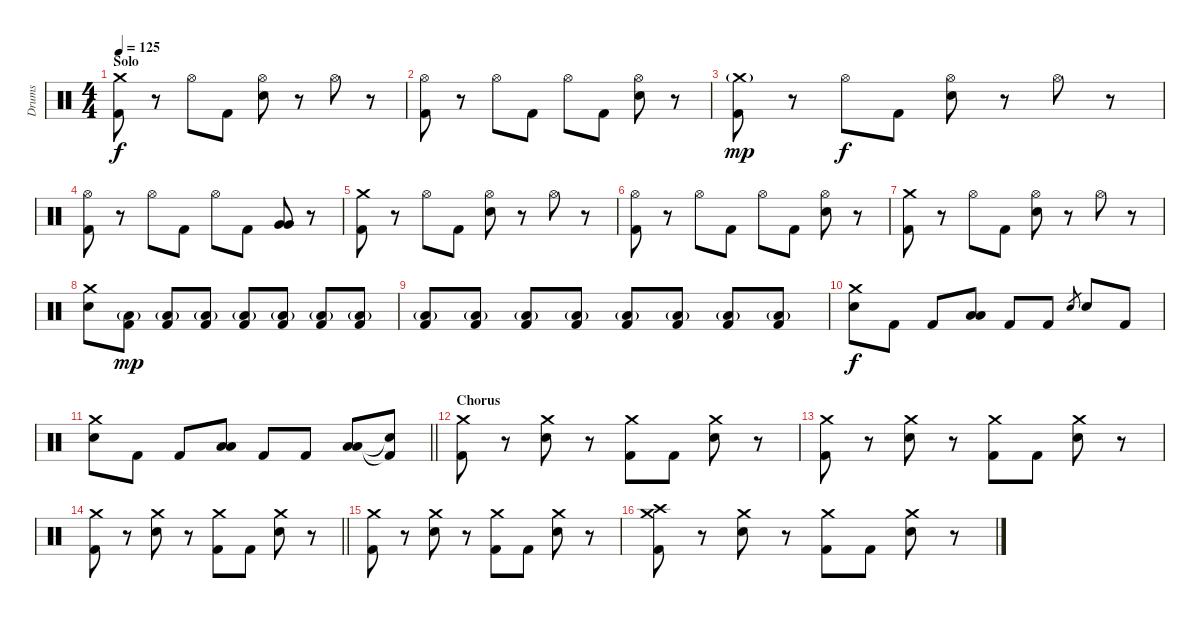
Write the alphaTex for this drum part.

\track ("Drums" "Drums") {instrument percussion}
\staff {score}
\articulation defaults
\ts (4 4)
\section ("" "Solo")
\tempo 125
\clef neutral
\ks c
("Crash medium (hit)" "Kick (hit) 2").8{dy f} r.8 "Hi-Hat (open)".8 "Kick (hit) 2".8 ("Hi-Hat (open)" "Electric Snare (hit)").8 r.8 "Hi-Hat (open)".8 r.8 |
("Hi-Hat (open)" "Kick (hit) 2").8 r.8 "Hi-Hat (open)".8 "Kick (hit) 2".8 "Hi-Hat (open)".8 "Kick (hit) 2".8 ("Hi-Hat (open)" "Electric Snare (hit)").8 r.8 |
("Crash medium (hit)"{g} "Kick (hit) 2").8{dy mp} r.8 "Hi-Hat (open)".8{dy f} "Kick (hit) 2".8 ("Hi-Hat (open)" "Electric Snare (hit)").8 r.8 "Hi-Hat (open)".8 r.8 |
("Hi-Hat (open)" "Kick (hit) 2").8 r.8 "Hi-Hat (open)".8 "Kick (hit) 2".8 "Hi-Hat (open)".8 "Kick (hit) 2".8 ("Very Low Tom (hit)" "Very Low Tom (hit)").8 r.8 |
("Crash medium (hit)" "Kick (hit) 2").8 r.8 "Hi-Hat (open)".8 "Kick (hit) 2".8 ("Hi-Hat (open)" "Electric Snare (hit)").8 r.8 "Hi-Hat (open)".8 r.8 |
("Hi-Hat (open)" "Kick (hit) 2").8 r.8 "Hi-Hat (open)".8 "Kick (hit) 2".8 "Hi-Hat (open)".8 "Kick (hit) 2".8 ("Hi-Hat (open)" "Electric Snare (hit)").8 r.8 |
("Crash medium (hit)" "Kick (hit) 2").8 r.8 "Hi-Hat (open)".8 "Kick (hit) 2".8 ("Hi-Hat (open)" "Electric Snare (hit)").8 r.8 "Hi-Hat (open)".8 r.8 |
("Crash medium (hit)" "Electric Snare (hit)").8 ("Low Floor Tom (hit)"{g} "Kick (hit) 2").8{dy mp} ("Low Floor Tom (hit)"{g} "Kick (hit) 2").8 ("Low Floor Tom (hit)"{g} "Kick (hit) 2").8 ("Low Floor Tom (hit)"{g} "Kick (hit) 2").8 ("Low Floor Tom (hit)"{g} "Kick (hit) 2").8 ("Low Floor Tom (hit)"{g} "Kick (hit) 2").8 ("Low Floor Tom (hit)"{g} "Kick (hit) 2").8 |
("Low Floor Tom (hit)"{g} "Kick (hit) 2").8 ("Low Floor Tom (hit)"{g} "Kick (hit) 2").8 ("Low Floor Tom (hit)"{g} "Kick (hit) 2").8 ("Low Floor Tom (hit)"{g} "Kick (hit) 2").8 ("Low Floor Tom (hit)"{g} "Kick (hit) 2").8 ("Low Floor Tom (hit)"{g} "Kick (hit) 2").8 ("Low Floor Tom (hit)"{g} "Kick (hit) 2").8 ("Low Floor Tom (hit)"{g} "Kick (hit) 2").8 |
("Crash medium (hit)" "Electric Snare (hit)").8{dy f} "Kick (hit) 2".8 "Kick (hit) 2".8 ("Low Tom (hit)" "Low Tom (hit)").8 "Kick (hit) 2".8 "Kick (hit) 2".8 "Electric Snare (hit)".8{gr} "Electric Snare (hit)".8 "Kick (hit) 2".8 |
\barLineRight lightlight
("Crash medium (hit)" "Electric Snare (hit)").8 "Kick (hit) 2".8 "Kick (hit) 2".8 ("Low Tom (hit)" "Low Tom (hit)").8 "Kick (hit) 2".8 "Kick (hit) 2".8 ("Low Floor Tom (hit)" "Low Floor Tom (hit)").8 ("Snare (hit)"{t} "Kick (hit) 2"{t}).8 |
\section ("" "Chorus")
("Crash medium (hit)" "Kick (hit) 2").8 r.8 ("Crash medium (hit)" "Electric Snare (hit)").8 r.8 ("Crash medium (hit)" "Kick (hit) 2").8 "Kick (hit) 2".8 ("Crash medium (hit)" "Electric Snare (hit)").8 r.8 |
("Crash medium (hit)" "Kick (hit) 2").8 r.8 ("Crash medium (hit)" "Electric Snare (hit)").8 r.8 ("Crash medium (hit)" "Kick (hit) 2").8 "Kick (hit) 2".8 ("Crash medium (hit)" "Electric Snare (hit)").8 r.8 |
\barLineRight lightlight
("Crash medium (hit)" "Kick (hit) 2").8 r.8 ("Crash medium (hit)" "Electric Snare (hit)").8 r.8 ("Crash medium (hit)" "Kick (hit) 2").8 "Kick (hit) 2".8 ("Crash medium (hit)" "Electric Snare (hit)").8 r.8 |
("Crash medium (hit)" "Kick (hit) 2").8 r.8 ("Crash medium (hit)" "Electric Snare (hit)").8 r.8 ("Crash medium (hit)" "Kick (hit) 2").8 "Kick (hit) 2".8 ("Crash medium (hit)" "Electric Snare (hit)").8 r.8 |
("Crash high (hit)" "Crash medium (hit)" "Kick (hit) 2").8 r.8 ("Crash medium (hit)" "Electric Snare (hit)").8 r.8 ("Crash medium (hit)" "Kick (hit) 2").8 "Kick (hit) 2".8 ("Crash medium (hit)" "Electric Snare (hit)").8 r.8
